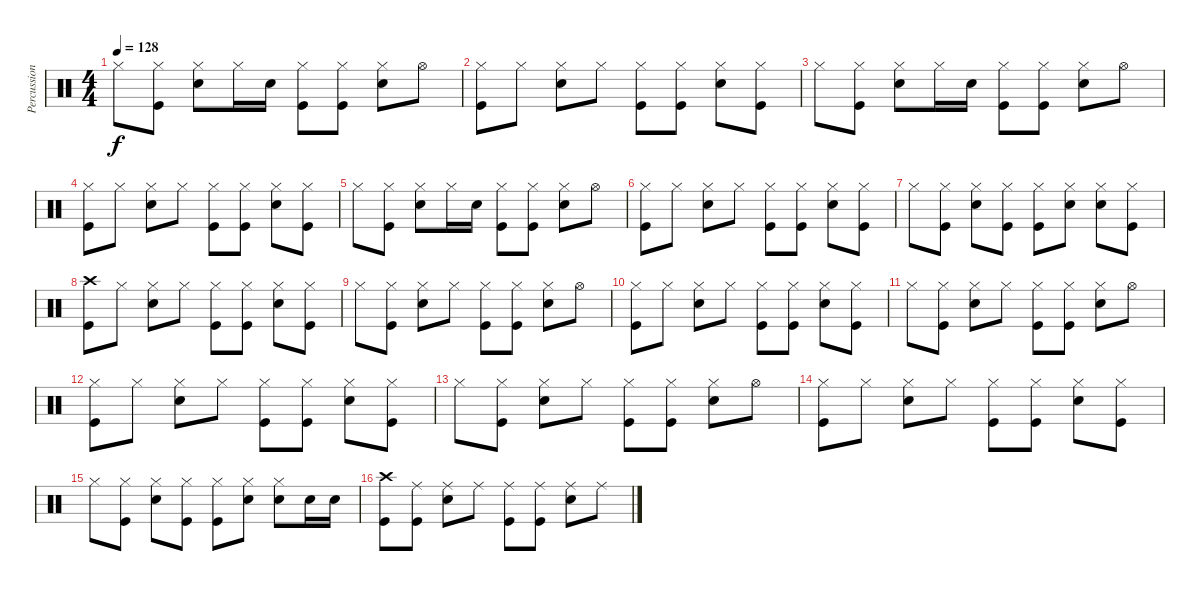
\track ("Percussion" "Percussion") {instrument percussion}
\staff {score}
\articulation defaults
\ts (4 4)
\tempo 128
\clef neutral
\ks c "Hi-Hat (closed)".8{dy f}
("Hi-Hat (closed)" "Kick (hit)").8 ("Hi-Hat (closed)" "Snare (hit) 2").8 "Hi-Hat (closed)".16 "Snare (hit) 2".16 ("Hi-Hat (closed)" "Kick (hit)").8 ("Hi-Hat (closed)" "Kick (hit)").8 ("Hi-Hat (closed)" "Snare (hit) 2").8 "Hi-Hat (open)".8 |
("Hi-Hat (closed)" "Kick (hit)").8 "Hi-Hat (closed)".8 ("Hi-Hat (closed)" "Snare (hit) 2").8 "Hi-Hat (closed)".8 ("Hi-Hat (closed)" "Kick (hit)").8 ("Hi-Hat (closed)" "Kick (hit)").8 ("Hi-Hat (closed)" "Snare (hit) 2").8 ("Hi-Hat (closed)" "Kick (hit)").8 |
"Hi-Hat (closed)".8 ("Hi-Hat (closed)" "Kick (hit)").8 ("Hi-Hat (closed)" "Snare (hit) 2").8 "Hi-Hat (closed)".16 "Snare (hit) 2".16 ("Hi-Hat (closed)" "Kick (hit)").8 ("Hi-Hat (closed)" "Kick (hit)").8 ("Hi-Hat (closed)" "Snare (hit) 2").8 "Hi-Hat (open)".8 |
("Hi-Hat (closed)" "Kick (hit)").8 "Hi-Hat (closed)".8 ("Hi-Hat (closed)" "Snare (hit) 2").8 "Hi-Hat (closed)".8 ("Hi-Hat (closed)" "Kick (hit)").8 ("Hi-Hat (closed)" "Kick (hit)").8 ("Hi-Hat (closed)" "Snare (hit) 2").8 ("Hi-Hat (closed)" "Kick (hit)").8 |
"Hi-Hat (closed)".8 ("Hi-Hat (closed)" "Kick (hit)").8 ("Hi-Hat (closed)" "Snare (hit) 2").8 "Hi-Hat (closed)".16 "Snare (hit) 2".16 ("Hi-Hat (closed)" "Kick (hit)").8 ("Hi-Hat (closed)" "Kick (hit)").8 ("Hi-Hat (closed)" "Snare (hit) 2").8 "Hi-Hat (open)".8 |
("Hi-Hat (closed)" "Kick (hit)").8 "Hi-Hat (closed)".8 ("Hi-Hat (closed)" "Snare (hit) 2").8 "Hi-Hat (closed)".8 ("Hi-Hat (closed)" "Kick (hit)").8 ("Hi-Hat (closed)" "Kick (hit)").8 ("Hi-Hat (closed)" "Snare (hit) 2").8 ("Hi-Hat (closed)" "Kick (hit)").8 |
"Hi-Hat (closed)".8 ("Hi-Hat (closed)" "Kick (hit)").8 ("Hi-Hat (closed)" "Snare (hit) 2").8 ("Hi-Hat (closed)" "Kick (hit)").8 ("Hi-Hat (closed)" "Kick (hit)").8 ("Hi-Hat (closed)" "Snare (hit) 2").8 ("Hi-Hat (closed)" "Snare (hit) 2").8 ("Hi-Hat (closed)" "Kick (hit)").8 |
("Crash high (hit)" "Kick (hit)").8 "Hi-Hat (closed)".8 ("Hi-Hat (closed)" "Snare (hit) 2").8 "Hi-Hat (closed)".8 ("Hi-Hat (closed)" "Kick (hit)").8 ("Hi-Hat (closed)" "Kick (hit)").8 ("Hi-Hat (closed)" "Snare (hit) 2").8 ("Hi-Hat (closed)" "Kick (hit)").8 |
"Hi-Hat (closed)".8 ("Hi-Hat (closed)" "Kick (hit)").8 ("Hi-Hat (closed)" "Snare (hit) 2").8 "Hi-Hat (closed)".8 ("Hi-Hat (closed)" "Kick (hit)").8 ("Hi-Hat (closed)" "Kick (hit)").8 ("Hi-Hat (closed)" "Snare (hit) 2").8 "Hi-Hat (open)".8 |
("Hi-Hat (closed)" "Kick (hit)").8 "Hi-Hat (closed)".8 ("Hi-Hat (closed)" "Snare (hit) 2").8 "Hi-Hat (closed)".8 ("Hi-Hat (closed)" "Kick (hit)").8 ("Hi-Hat (closed)" "Kick (hit)").8 ("Hi-Hat (closed)" "Snare (hit) 2").8 ("Hi-Hat (closed)" "Kick (hit)").8 |
"Hi-Hat (closed)".8 ("Hi-Hat (closed)" "Kick (hit)").8 ("Hi-Hat (closed)" "Snare (hit) 2").8 "Hi-Hat (closed)".8 ("Hi-Hat (closed)" "Kick (hit)").8 ("Hi-Hat (closed)" "Kick (hit)").8 ("Hi-Hat (closed)" "Snare (hit) 2").8 "Hi-Hat (open)".8 |
("Hi-Hat (closed)" "Kick (hit)").8 "Hi-Hat (closed)".8 ("Hi-Hat (closed)" "Snare (hit) 2").8 "Hi-Hat (closed)".8 ("Hi-Hat (closed)" "Kick (hit)").8 ("Hi-Hat (closed)" "Kick (hit)").8 ("Hi-Hat (closed)" "Snare (hit) 2").8 ("Hi-Hat (closed)" "Kick (hit)").8 |
"Hi-Hat (closed)".8 ("Hi-Hat (closed)" "Kick (hit)").8 ("Hi-Hat (closed)" "Snare (hit) 2").8 "Hi-Hat (closed)".8 ("Hi-Hat (closed)" "Kick (hit)").8 ("Hi-Hat (closed)" "Kick (hit)").8 ("Hi-Hat (closed)" "Snare (hit) 2").8 "Hi-Hat (open)".8 |
("Hi-Hat (closed)" "Kick (hit)").8 "Hi-Hat (closed)".8 ("Hi-Hat (closed)" "Snare (hit) 2").8 "Hi-Hat (closed)".8 ("Hi-Hat (closed)" "Kick (hit)").8 ("Hi-Hat (closed)" "Kick (hit)").8 ("Hi-Hat (closed)" "Snare (hit) 2").8 ("Hi-Hat (closed)" "Kick (hit)").8 |
"Hi-Hat (closed)".8 ("Hi-Hat (closed)" "Kick (hit)").8 ("Hi-Hat (closed)" "Snare (hit) 2").8 ("Hi-Hat (closed)" "Kick (hit)").8 ("Hi-Hat (closed)" "Kick (hit)").8 ("Hi-Hat (closed)" "Snare (hit) 2").8 ("Hi-Hat (closed)" "Snare (hit) 2").8 "Snare (hit) 2".16 "Snare (hit) 2".16 |
("Crash high (hit)" "Kick (hit)").8 ("Ride (middle)" "Kick (hit)").8 ("Ride (middle)" "Snare (hit) 2").8 "Ride (middle)".8 ("Ride (middle)" "Kick (hit)").8 ("Ride (middle)" "Kick (hit)").8 ("Ride (middle)" "Snare (hit) 2").8 "Ride (middle)".8
